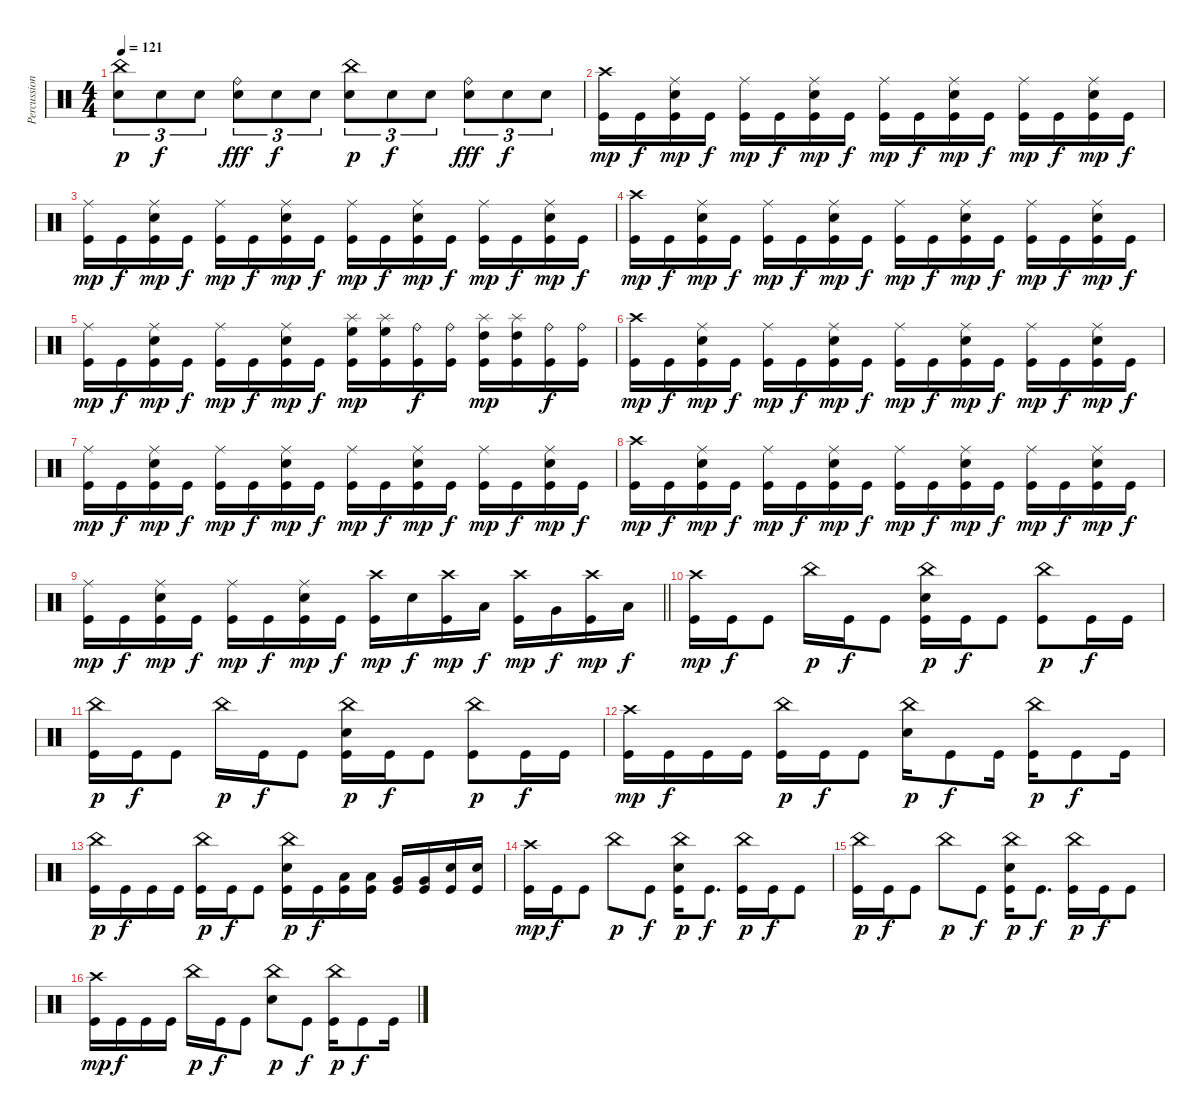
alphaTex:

\track ("Percussion" "Percussion") {instrument percussion}
\staff {score}
\articulation defaults
\ts (4 4)
\tempo 121
\clef neutral
\ks c
("China (hit)" "Electric Snare (hit)").8{tu (3 2) dy p} "Electric Snare (hit)".8{tu (3 2) dy f} "Electric Snare (hit)".8{tu (3 2)} ("Ride (bell)" "Electric Snare (hit)").8{tu (3 2) dy fff} "Electric Snare (hit)".8{tu (3 2) dy f} "Electric Snare (hit)".8{tu (3 2)} ("China (hit)" "Electric Snare (hit)").8{tu (3 2) dy p} "Electric Snare (hit)".8{tu (3 2) dy f} "Electric Snare (hit)".8{tu (3 2)} ("Ride (bell)" "Electric Snare (hit)").8{tu (3 2) dy fff} "Electric Snare (hit)".8{tu (3 2) dy f} "Electric Snare (hit)".8{tu (3 2)} |
("Crash high (hit)" "Kick (hit)").16{dy mp} "Kick (hit)".16{dy f} ("Ride (middle)" "Electric Snare (hit)" "Kick (hit)").16{dy mp} "Kick (hit)".16{dy f} ("Ride (middle)" "Kick (hit)").16{dy mp} "Kick (hit)".16{dy f} ("Ride (middle)" "Electric Snare (hit)" "Kick (hit)").16{dy mp} "Kick (hit)".16{dy f} ("Ride (middle)" "Kick (hit)").16{dy mp} "Kick (hit)".16{dy f} ("Ride (middle)" "Electric Snare (hit)" "Kick (hit)").16{dy mp} "Kick (hit)".16{dy f} ("Ride (middle)" "Kick (hit)").16{dy mp} "Kick (hit)".16{dy f} ("Ride (middle)" "Electric Snare (hit)" "Kick (hit)").16{dy mp} "Kick (hit)".16{dy f} |
("Ride (middle)" "Kick (hit)").16{dy mp} "Kick (hit)".16{dy f} ("Ride (middle)" "Electric Snare (hit)" "Kick (hit)").16{dy mp} "Kick (hit)".16{dy f} ("Ride (middle)" "Kick (hit)").16{dy mp} "Kick (hit)".16{dy f} ("Ride (middle)" "Electric Snare (hit)" "Kick (hit)").16{dy mp} "Kick (hit)".16{dy f} ("Ride (middle)" "Kick (hit)").16{dy mp} "Kick (hit)".16{dy f} ("Ride (middle)" "Electric Snare (hit)" "Kick (hit)").16{dy mp} "Kick (hit)".16{dy f} ("Ride (middle)" "Kick (hit)").16{dy mp} "Kick (hit)".16{dy f} ("Ride (middle)" "Electric Snare (hit)" "Kick (hit)").16{dy mp} "Kick (hit)".16{dy f} |
("Crash high (hit)" "Kick (hit)").16{dy mp} "Kick (hit)".16{dy f} ("Ride (middle)" "Electric Snare (hit)" "Kick (hit)").16{dy mp} "Kick (hit)".16{dy f} ("Ride (middle)" "Kick (hit)").16{dy mp} "Kick (hit)".16{dy f} ("Ride (middle)" "Electric Snare (hit)" "Kick (hit)").16{dy mp} "Kick (hit)".16{dy f} ("Ride (middle)" "Kick (hit)").16{dy mp} "Kick (hit)".16{dy f} ("Ride (middle)" "Electric Snare (hit)" "Kick (hit)").16{dy mp} "Kick (hit)".16{dy f} ("Ride (middle)" "Kick (hit)").16{dy mp} "Kick (hit)".16{dy f} ("Ride (middle)" "Electric Snare (hit)" "Kick (hit)").16{dy mp} "Kick (hit)".16{dy f} |
("Ride (middle)" "Kick (hit)").16{dy mp} "Kick (hit)".16{dy f} ("Ride (middle)" "Electric Snare (hit)" "Kick (hit)").16{dy mp} "Kick (hit)".16{dy f} ("Ride (middle)" "Kick (hit)").16{dy mp} "Kick (hit)".16{dy f} ("Ride (middle)" "Electric Snare (hit)" "Kick (hit)").16{dy mp} "Kick (hit)".16{dy f} ("Splash (hit)" "High Floor Tom (hit)" "Kick (hit)").16{dy mp} ("Splash (hit)" "High Floor Tom (hit)" "Kick (hit)").16 ("Ride (bell)" "Kick (hit)").16{dy f} ("Ride (bell)" "Kick (hit)").16 ("Splash (hit)" "High Tom (hit)" "Kick (hit)").16{dy mp} ("Splash (hit)" "High Tom (hit)" "Kick (hit)").16 ("Ride (bell)" "Kick (hit)").16{dy f} ("Ride (bell)" "Kick (hit)").16 |
("Crash high (hit)" "Kick (hit)").16{dy mp} "Kick (hit)".16{dy f} ("Ride (middle)" "Electric Snare (hit)" "Kick (hit)").16{dy mp} "Kick (hit)".16{dy f} ("Ride (middle)" "Kick (hit)").16{dy mp} "Kick (hit)".16{dy f} ("Ride (middle)" "Electric Snare (hit)" "Kick (hit)").16{dy mp} "Kick (hit)".16{dy f} ("Ride (middle)" "Kick (hit)").16{dy mp} "Kick (hit)".16{dy f} ("Ride (middle)" "Electric Snare (hit)" "Kick (hit)").16{dy mp} "Kick (hit)".16{dy f} ("Ride (middle)" "Kick (hit)").16{dy mp} "Kick (hit)".16{dy f} ("Ride (middle)" "Electric Snare (hit)" "Kick (hit)").16{dy mp} "Kick (hit)".16{dy f} |
("Ride (middle)" "Kick (hit)").16{dy mp} "Kick (hit)".16{dy f} ("Ride (middle)" "Electric Snare (hit)" "Kick (hit)").16{dy mp} "Kick (hit)".16{dy f} ("Ride (middle)" "Kick (hit)").16{dy mp} "Kick (hit)".16{dy f} ("Ride (middle)" "Electric Snare (hit)" "Kick (hit)").16{dy mp} "Kick (hit)".16{dy f} ("Ride (middle)" "Kick (hit)").16{dy mp} "Kick (hit)".16{dy f} ("Ride (middle)" "Electric Snare (hit)" "Kick (hit)").16{dy mp} "Kick (hit)".16{dy f} ("Ride (middle)" "Kick (hit)").16{dy mp} "Kick (hit)".16{dy f} ("Ride (middle)" "Electric Snare (hit)" "Kick (hit)").16{dy mp} "Kick (hit)".16{dy f} |
("Crash high (hit)" "Kick (hit)").16{dy mp} "Kick (hit)".16{dy f} ("Ride (middle)" "Electric Snare (hit)" "Kick (hit)").16{dy mp} "Kick (hit)".16{dy f} ("Ride (middle)" "Kick (hit)").16{dy mp} "Kick (hit)".16{dy f} ("Ride (middle)" "Electric Snare (hit)" "Kick (hit)").16{dy mp} "Kick (hit)".16{dy f} ("Ride (middle)" "Kick (hit)").16{dy mp} "Kick (hit)".16{dy f} ("Ride (middle)" "Electric Snare (hit)" "Kick (hit)").16{dy mp} "Kick (hit)".16{dy f} ("Ride (middle)" "Kick (hit)").16{dy mp} "Kick (hit)".16{dy f} ("Ride (middle)" "Electric Snare (hit)" "Kick (hit)").16{dy mp} "Kick (hit)".16{dy f} |
\barLineRight lightlight
("Ride (middle)" "Kick (hit)").16{dy mp} "Kick (hit)".16{dy f} ("Ride (middle)" "Electric Snare (hit)" "Kick (hit)").16{dy mp} "Kick (hit)".16{dy f} ("Ride (middle)" "Kick (hit)").16{dy mp} "Kick (hit)".16{dy f} ("Ride (middle)" "Electric Snare (hit)" "Kick (hit)").16{dy mp} "Kick (hit)".16{dy f} ("Crash high (hit)" "Kick (hit)").16{dy mp} "Electric Snare (hit)".16{dy f} ("Crash high (hit)" "Kick (hit)").16{dy mp} "Low Tom (hit)".16{dy f} ("Crash high (hit)" "Kick (hit)").16{dy mp} "Very Low Tom (hit)".16{dy f} ("Crash high (hit)" "Kick (hit)").16{dy mp} "Low Floor Tom (hit)".16{dy f} |
\section ("" "")
("Crash high (hit)" "Kick (hit)").16{dy mp} "Kick (hit)".16{dy f} "Kick (hit)".8 "China (hit)".16{dy p} "Kick (hit)".16{dy f} "Kick (hit)".8 ("China (hit)" "Electric Snare (hit)" "Kick (hit)").16{dy p} "Kick (hit)".16{dy f} "Kick (hit)".8 ("China (hit)" "Kick (hit)").8{dy p} "Kick (hit)".16{dy f} "Kick (hit)".16 |
("China (hit)" "Kick (hit)").16{dy p} "Kick (hit)".16{dy f} "Kick (hit)".8 "China (hit)".16{dy p} "Kick (hit)".16{dy f} "Kick (hit)".8 ("China (hit)" "Electric Snare (hit)" "Kick (hit)").16{dy p} "Kick (hit)".16{dy f} "Kick (hit)".8 ("China (hit)" "Kick (hit)").8{dy p} "Kick (hit)".16{dy f} "Kick (hit)".16 |
("Crash high (hit)" "Kick (hit)").16{dy mp} "Kick (hit)".16{dy f} "Kick (hit)".16 "Kick (hit)".16 ("China (hit)" "Kick (hit)").16{dy p} "Kick (hit)".16{dy f} "Kick (hit)".8 ("China (hit)" "Electric Snare (hit)").16{dy p} "Kick (hit)".8{dy f} "Kick (hit)".16 ("China (hit)" "Kick (hit)").16{dy p} "Kick (hit)".8{dy f} "Kick (hit)".16 |
("China (hit)" "Kick (hit)").16{dy p} "Kick (hit)".16{dy f} "Kick (hit)".16 "Kick (hit)".16 ("China (hit)" "Kick (hit)").16{dy p} "Kick (hit)".16{dy f} "Kick (hit)".8 ("China (hit)" "Electric Snare (hit)" "Kick (hit)").16{dy p} "Kick (hit)".16{dy f} ("Low Tom (hit)" "Kick (hit)").16 ("Low Tom (hit)" "Kick (hit)").16 ("Very Low Tom (hit)" "Kick (hit)").16 ("Very Low Tom (hit)" "Kick (hit)").16 ("Electric Snare (hit)" "Kick (hit)").16 ("Electric Snare (hit)" "Kick (hit)").16 |
("Crash high (hit)" "Kick (hit)").16{dy mp} "Kick (hit)".16{dy f} "Kick (hit)".8 "China (hit)".8{dy p} "Kick (hit)".8{dy f} ("China (hit)" "Electric Snare (hit)" "Kick (hit)").16{dy p} "Kick (hit)".8{d dy f} ("China (hit)" "Kick (hit)").16{dy p} "Kick (hit)".16{dy f} "Kick (hit)".8 |
("China (hit)" "Kick (hit)").16{dy p} "Kick (hit)".16{dy f} "Kick (hit)".8 "China (hit)".8{dy p} "Kick (hit)".8{dy f} ("China (hit)" "Electric Snare (hit)" "Kick (hit)").16{dy p} "Kick (hit)".8{d dy f} ("China (hit)" "Kick (hit)").16{dy p} "Kick (hit)".16{dy f} "Kick (hit)".8 |
("Crash high (hit)" "Kick (hit)").16{dy mp} "Kick (hit)".16{dy f} "Kick (hit)".16 "Kick (hit)".16 "China (hit)".16{dy p} "Kick (hit)".16{dy f} "Kick (hit)".8 ("China (hit)" "Electric Snare (hit)").8{dy p} "Kick (hit)".8{dy f} ("China (hit)" "Kick (hit)").16{dy p} "Kick (hit)".8{dy f} "Kick (hit)".16
